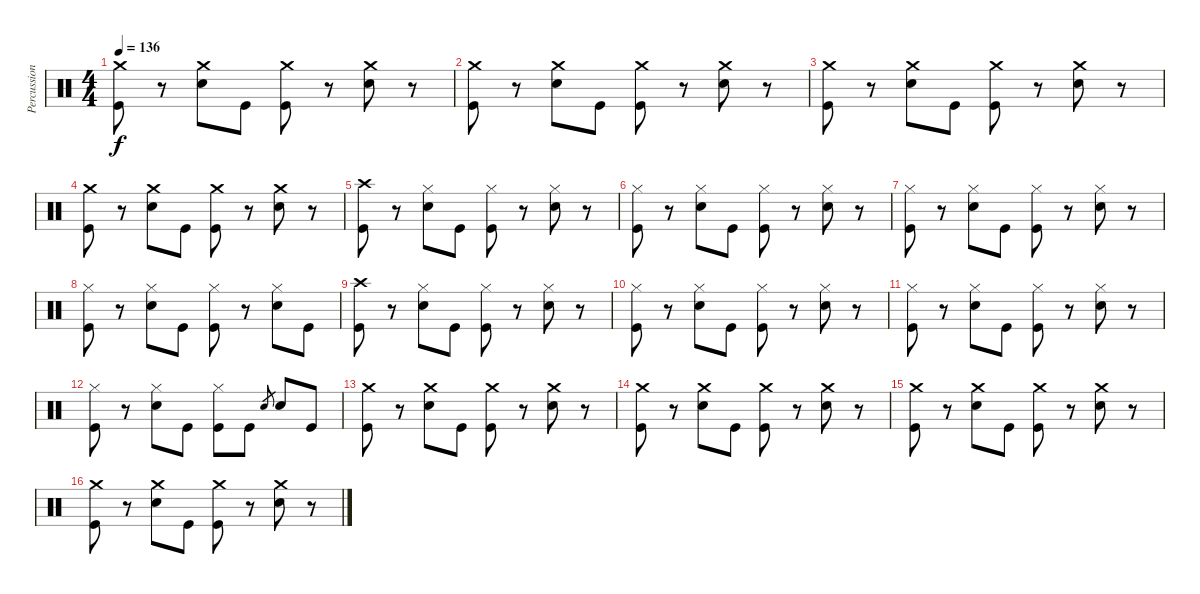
\track ("Percussion" "Percussion") {instrument percussion}
\staff {score}
\articulation defaults
\ts (4 4)
\tempo 136
\clef neutral
\ks c
("Crash medium (hit)" "Kick (hit)").8{dy f} r.8 ("Crash medium (hit)" "Electric Snare (hit)").8 "Kick (hit)".8 ("Crash medium (hit)" "Kick (hit)").8 r.8 ("Crash medium (hit)" "Electric Snare (hit)").8 r.8 |
("Crash medium (hit)" "Kick (hit)").8 r.8 ("Crash medium (hit)" "Electric Snare (hit)").8 "Kick (hit)".8 ("Crash medium (hit)" "Kick (hit)").8 r.8 ("Crash medium (hit)" "Electric Snare (hit)").8 r.8 |
("Crash medium (hit)" "Kick (hit)").8 r.8 ("Crash medium (hit)" "Electric Snare (hit)").8 "Kick (hit)".8 ("Crash medium (hit)" "Kick (hit)").8 r.8 ("Crash medium (hit)" "Electric Snare (hit)").8 r.8 |
("Crash medium (hit)" "Kick (hit)").8 r.8 ("Crash medium (hit)" "Electric Snare (hit)").8 "Kick (hit)".8 ("Crash medium (hit)" "Kick (hit)").8 r.8 ("Crash medium (hit)" "Electric Snare (hit)").8 r.8 |
("Crash high (hit)" "Kick (hit)").8 r.8 ("Hi-Hat (closed)" "Electric Snare (hit)").8 "Kick (hit)".8 ("Hi-Hat (closed)" "Kick (hit)").8 r.8 ("Hi-Hat (closed)" "Electric Snare (hit)").8 r.8 |
("Hi-Hat (closed)" "Kick (hit)").8 r.8 ("Hi-Hat (closed)" "Electric Snare (hit)").8 "Kick (hit)".8 ("Hi-Hat (closed)" "Kick (hit)").8 r.8 ("Hi-Hat (closed)" "Electric Snare (hit)").8 r.8 |
("Hi-Hat (closed)" "Kick (hit)").8 r.8 ("Hi-Hat (closed)" "Electric Snare (hit)").8 "Kick (hit)".8 ("Hi-Hat (closed)" "Kick (hit)").8 r.8 ("Hi-Hat (closed)" "Electric Snare (hit)").8 r.8 |
("Hi-Hat (closed)" "Kick (hit)").8 r.8 ("Hi-Hat (closed)" "Electric Snare (hit)").8 "Kick (hit)".8 ("Hi-Hat (closed)" "Kick (hit)").8 r.8 ("Hi-Hat (closed)" "Electric Snare (hit)").8 "Kick (hit)".8 |
("Crash high (hit)" "Kick (hit)").8 r.8 ("Hi-Hat (closed)" "Electric Snare (hit)").8 "Kick (hit)".8 ("Hi-Hat (closed)" "Kick (hit)").8 r.8 ("Hi-Hat (closed)" "Electric Snare (hit)").8 r.8 |
("Hi-Hat (closed)" "Kick (hit)").8 r.8 ("Hi-Hat (closed)" "Electric Snare (hit)").8 "Kick (hit)".8 ("Hi-Hat (closed)" "Kick (hit)").8 r.8 ("Hi-Hat (closed)" "Electric Snare (hit)").8 r.8 |
("Hi-Hat (closed)" "Kick (hit)").8 r.8 ("Hi-Hat (closed)" "Electric Snare (hit)").8 "Kick (hit)".8 ("Hi-Hat (closed)" "Kick (hit)").8 r.8 ("Hi-Hat (closed)" "Electric Snare (hit)").8 r.8 |
("Hi-Hat (closed)" "Kick (hit)").8 r.8 ("Hi-Hat (closed)" "Electric Snare (hit)").8 "Kick (hit)".8 ("Hi-Hat (closed)" "Kick (hit)").8 "Kick (hit)".8 "Electric Snare (hit)".8{gr} "Electric Snare (hit)".8 "Kick (hit)".8 |
("Crash medium (hit)" "Kick (hit)").8 r.8 ("Crash medium (hit)" "Electric Snare (hit)").8 "Kick (hit)".8 ("Crash medium (hit)" "Kick (hit)").8 r.8 ("Crash medium (hit)" "Electric Snare (hit)").8 r.8 |
("Crash medium (hit)" "Kick (hit)").8 r.8 ("Crash medium (hit)" "Electric Snare (hit)").8 "Kick (hit)".8 ("Crash medium (hit)" "Kick (hit)").8 r.8 ("Crash medium (hit)" "Electric Snare (hit)").8 r.8 |
("Crash medium (hit)" "Kick (hit)").8 r.8 ("Crash medium (hit)" "Electric Snare (hit)").8 "Kick (hit)".8 ("Crash medium (hit)" "Kick (hit)").8 r.8 ("Crash medium (hit)" "Electric Snare (hit)").8 r.8 |
("Crash medium (hit)" "Kick (hit)").8 r.8 ("Crash medium (hit)" "Electric Snare (hit)").8 "Kick (hit)".8 ("Crash medium (hit)" "Kick (hit)").8 r.8 ("Crash medium (hit)" "Electric Snare (hit)").8 r.8
